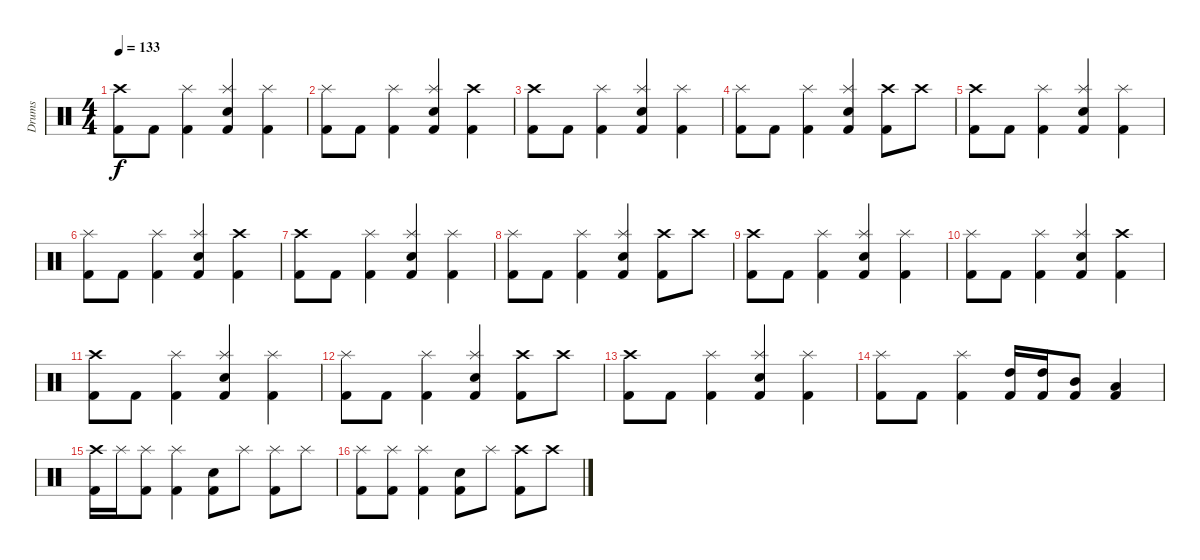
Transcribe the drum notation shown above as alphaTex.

\track ("Drums" "Drums") {instrument percussion}
\staff {score}
\articulation defaults
\ts (4 4)
\tempo 133
\clef neutral
\ks c
("Kick (hit) 2" "Crash high (hit)").8{dy f} "Kick (hit) 2".8 ("Kick (hit) 2" "Splash (hit)").4 ("Kick (hit) 2" "Snare (hit) 2" "Splash (hit)").4 ("Kick (hit) 2" "Splash (hit)").4 |
("Kick (hit) 2" "Splash (hit)").8 "Kick (hit) 2".8 ("Kick (hit) 2" "Splash (hit)").4 ("Kick (hit) 2" "Snare (hit) 2" "Splash (hit)").4 ("Kick (hit) 2" "Crash high (hit)").4 |
("Kick (hit) 2" "Crash high (hit)").8 "Kick (hit) 2".8 ("Kick (hit) 2" "Splash (hit)").4 ("Kick (hit) 2" "Snare (hit) 2" "Splash (hit)").4 ("Kick (hit) 2" "Splash (hit)").4 |
("Kick (hit) 2" "Splash (hit)").8 "Kick (hit) 2".8 ("Kick (hit) 2" "Splash (hit)").4 ("Kick (hit) 2" "Snare (hit) 2" "Splash (hit)").4 ("Kick (hit) 2" "Crash high (hit)").8 "Crash high (hit)".8 |
("Kick (hit) 2" "Crash high (hit)").8 "Kick (hit) 2".8 ("Kick (hit) 2" "Splash (hit)").4 ("Kick (hit) 2" "Snare (hit) 2" "Splash (hit)").4 ("Kick (hit) 2" "Splash (hit)").4 |
("Kick (hit) 2" "Splash (hit)").8 "Kick (hit) 2".8 ("Kick (hit) 2" "Splash (hit)").4 ("Kick (hit) 2" "Snare (hit) 2" "Splash (hit)").4 ("Kick (hit) 2" "Crash high (hit)").4 |
("Kick (hit) 2" "Crash high (hit)").8 "Kick (hit) 2".8 ("Kick (hit) 2" "Splash (hit)").4 ("Kick (hit) 2" "Snare (hit) 2" "Splash (hit)").4 ("Kick (hit) 2" "Splash (hit)").4 |
("Kick (hit) 2" "Splash (hit)").8 "Kick (hit) 2".8 ("Kick (hit) 2" "Splash (hit)").4 ("Kick (hit) 2" "Snare (hit) 2" "Splash (hit)").4 ("Kick (hit) 2" "Crash high (hit)").8 "Crash high (hit)".8 |
("Kick (hit) 2" "Crash high (hit)").8 "Kick (hit) 2".8 ("Kick (hit) 2" "Splash (hit)").4 ("Kick (hit) 2" "Snare (hit) 2" "Splash (hit)").4 ("Kick (hit) 2" "Splash (hit)").4 |
("Kick (hit) 2" "Splash (hit)").8 "Kick (hit) 2".8 ("Kick (hit) 2" "Splash (hit)").4 ("Kick (hit) 2" "Snare (hit) 2" "Splash (hit)").4 ("Kick (hit) 2" "Crash high (hit)").4 |
("Kick (hit) 2" "Crash high (hit)").8 "Kick (hit) 2".8 ("Kick (hit) 2" "Splash (hit)").4 ("Kick (hit) 2" "Snare (hit) 2" "Splash (hit)").4 ("Kick (hit) 2" "Splash (hit)").4 |
("Kick (hit) 2" "Splash (hit)").8 "Kick (hit) 2".8 ("Kick (hit) 2" "Splash (hit)").4 ("Kick (hit) 2" "Snare (hit) 2" "Splash (hit)").4 ("Kick (hit) 2" "Crash high (hit)").8 "Crash high (hit)".8 |
("Kick (hit) 2" "Crash high (hit)").8 "Kick (hit) 2".8 ("Kick (hit) 2" "Splash (hit)").4 ("Kick (hit) 2" "Snare (hit) 2" "Splash (hit)").4 ("Kick (hit) 2" "Splash (hit)").4 |
("Kick (hit) 2" "Splash (hit)").8 "Kick (hit) 2".8 ("Kick (hit) 2" "Splash (hit)").4 ("Kick (hit) 2" "High Tom (hit)").16 ("Kick (hit) 2" "High Tom (hit)").16 ("Kick (hit) 2" "Mid Tom (hit)").8 ("Kick (hit) 2" "Low Tom (hit)").4 |
("Kick (hit) 2" "Crash high (hit)").16 "Splash (hit)".16 ("Kick (hit) 2" "Splash (hit)").8 ("Kick (hit) 2" "Splash (hit)").4 ("Kick (hit) 2" "Snare (hit) 2").8 "Splash (hit)".8 ("Kick (hit) 2" "Splash (hit)").8 "Splash (hit)".8 |
("Kick (hit) 2" "Splash (hit)").8 ("Kick (hit) 2" "Splash (hit)").8 ("Kick (hit) 2" "Splash (hit)").4 ("Kick (hit) 2" "Snare (hit) 2").8 "Splash (hit)".8 ("Kick (hit) 2" "Crash high (hit)").8 "Crash high (hit)".8
